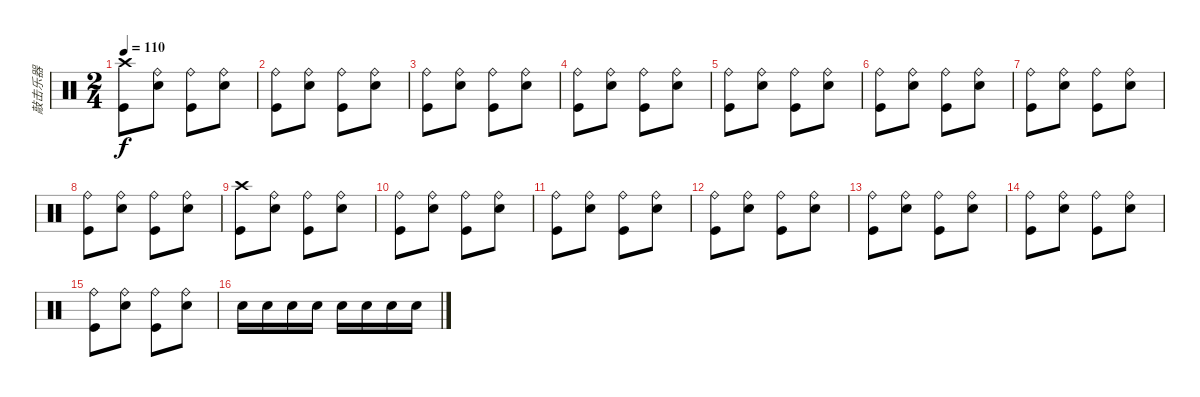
\track ("敲击乐器" "敲击乐器") {instrument percussion}
\staff {score}
\articulation defaults
\ts (2 4)
\tempo 110
\clef neutral
\ks c
("Crash high (hit)" "Kick (hit)").8{dy f} ("Ride (bell)" "Snare (hit) 2").8 ("Ride (bell)" "Kick (hit)").8 ("Ride (bell)" "Snare (hit) 2").8 |
("Ride (bell)" "Kick (hit)").8 ("Ride (bell)" "Snare (hit) 2").8 ("Ride (bell)" "Kick (hit)").8 ("Ride (bell)" "Snare (hit) 2").8 |
("Ride (bell)" "Kick (hit)").8 ("Ride (bell)" "Snare (hit) 2").8 ("Ride (bell)" "Kick (hit)").8 ("Ride (bell)" "Snare (hit) 2").8 |
("Ride (bell)" "Kick (hit)").8 ("Ride (bell)" "Snare (hit) 2").8 ("Ride (bell)" "Kick (hit)").8 ("Ride (bell)" "Snare (hit) 2").8 |
("Ride (bell)" "Kick (hit)").8 ("Ride (bell)" "Snare (hit) 2").8 ("Ride (bell)" "Kick (hit)").8 ("Ride (bell)" "Snare (hit) 2").8 |
("Ride (bell)" "Kick (hit)").8 ("Ride (bell)" "Snare (hit) 2").8 ("Ride (bell)" "Kick (hit)").8 ("Ride (bell)" "Snare (hit) 2").8 |
("Ride (bell)" "Kick (hit)").8 ("Ride (bell)" "Snare (hit) 2").8 ("Ride (bell)" "Kick (hit)").8 ("Ride (bell)" "Snare (hit) 2").8 |
("Ride (bell)" "Kick (hit)").8 ("Ride (bell)" "Snare (hit) 2").8 ("Ride (bell)" "Kick (hit)").8 ("Ride (bell)" "Snare (hit) 2").8 |
("Crash high (hit)" "Kick (hit)").8 ("Ride (bell)" "Snare (hit) 2").8 ("Ride (bell)" "Kick (hit)").8 ("Ride (bell)" "Snare (hit) 2").8 |
("Ride (bell)" "Kick (hit)").8 ("Ride (bell)" "Snare (hit) 2").8 ("Ride (bell)" "Kick (hit)").8 ("Ride (bell)" "Snare (hit) 2").8 |
("Ride (bell)" "Kick (hit)").8 ("Ride (bell)" "Snare (hit) 2").8 ("Ride (bell)" "Kick (hit)").8 ("Ride (bell)" "Snare (hit) 2").8 |
("Ride (bell)" "Kick (hit)").8 ("Ride (bell)" "Snare (hit) 2").8 ("Ride (bell)" "Kick (hit)").8 ("Ride (bell)" "Snare (hit) 2").8 |
("Ride (bell)" "Kick (hit)").8 ("Ride (bell)" "Snare (hit) 2").8 ("Ride (bell)" "Kick (hit)").8 ("Ride (bell)" "Snare (hit) 2").8 |
("Ride (bell)" "Kick (hit)").8 ("Ride (bell)" "Snare (hit) 2").8 ("Ride (bell)" "Kick (hit)").8 ("Ride (bell)" "Snare (hit) 2").8 |
("Ride (bell)" "Kick (hit)").8 ("Ride (bell)" "Snare (hit) 2").8 ("Ride (bell)" "Kick (hit)").8 ("Ride (bell)" "Snare (hit) 2").8 |
"Snare (hit) 2".16 "Snare (hit) 2".16 "Snare (hit) 2".16 "Snare (hit) 2".16 "Snare (hit) 2".16 "Snare (hit) 2".16 "Snare (hit) 2".16 "Snare (hit) 2".16
